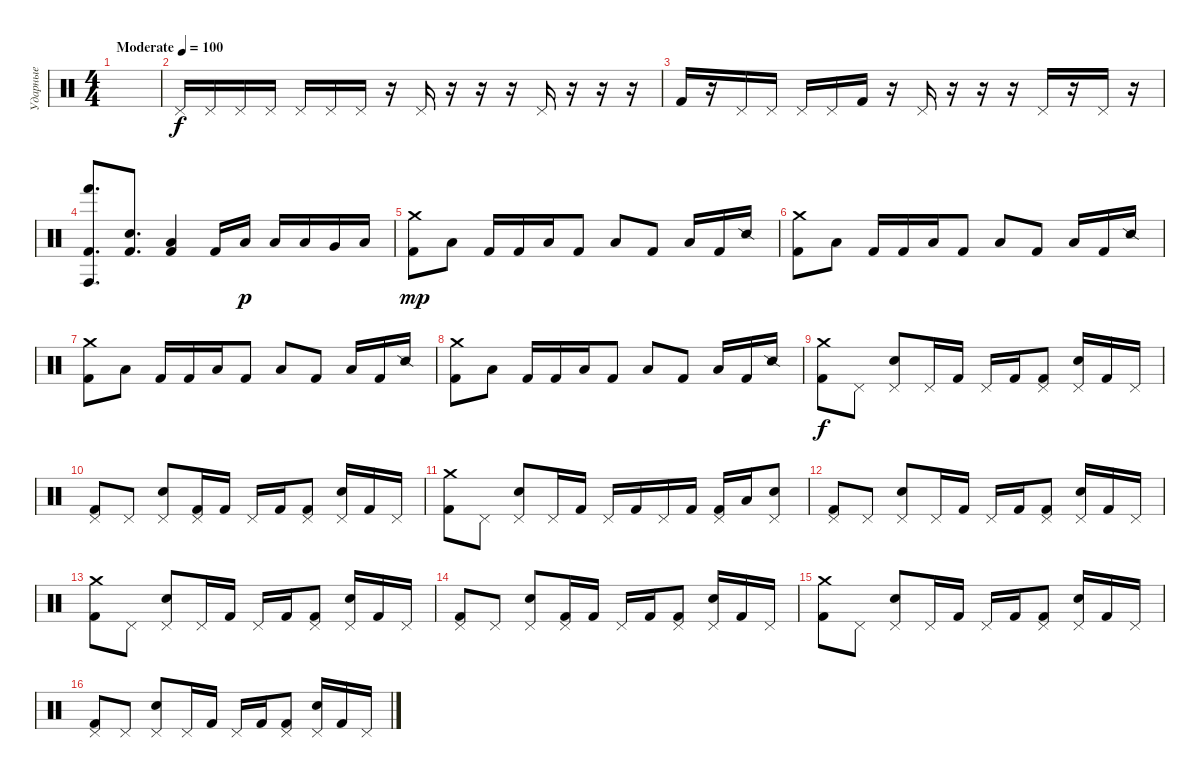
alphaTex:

\track ("Ударные" "Ударные") {instrument percussion}
\staff {score}
\articulation defaults
\ts (4 4)
\tempo (100 "Moderate")
\clef neutral
\ks c
|
"Pedal Hi-Hat (hit)".16 "Pedal Hi-Hat (hit)".16 "Pedal Hi-Hat (hit)".16 "Pedal Hi-Hat (hit)".16 "Pedal Hi-Hat (hit)".16 "Pedal Hi-Hat (hit)".16 "Pedal Hi-Hat (hit)".16 r.16 "Pedal Hi-Hat (hit)".16 r.16 r.16 r.16 "Pedal Hi-Hat (hit)".16 r.16 r.16 r.16 |
"Kick (hit) 2".16 r.16 "Pedal Hi-Hat (hit)".16 "Pedal Hi-Hat (hit)".16 "Pedal Hi-Hat (hit)".16 "Pedal Hi-Hat (hit)".16 "Kick (hit) 2".16 r.16 "Pedal Hi-Hat (hit)".16 r.16 r.16 r.16 "Pedal Hi-Hat (hit)".16 r.16 "Pedal Hi-Hat (hit)".16 r.16 |
("Hand (hit)" "Kick (hit) 2" "Conga high (hit)").8{d} ("Snare (hit) 2" "Kick (hit) 2").8{d} ("Low Floor Tom (hit)" "Kick (hit) 2").4 "Kick (hit) 2".16 "Low Floor Tom (hit)".16{dy p} "Low Floor Tom (hit)".16 "Low Floor Tom (hit)".16 "Very Low Tom (hit)".16 "Low Tom (hit)".16 |
("Crash medium (hit)" "Kick (hit) 2").8{dy mp} "Low Floor Tom (hit)".8 "Kick (hit) 2".16 "Kick (hit) 2".16 "Low Floor Tom (hit)".16 "Kick (hit) 2".8 "Low Floor Tom (hit)".8 "Kick (hit) 2".8 "Low Floor Tom (hit)".16 "Kick (hit) 2".16 "Snare (side stick) 2".16 |
("Crash medium (hit)" "Kick (hit) 2").8 "Low Floor Tom (hit)".8 "Kick (hit) 2".16 "Kick (hit) 2".16 "Low Floor Tom (hit)".16 "Kick (hit) 2".8 "Low Floor Tom (hit)".8 "Kick (hit) 2".8 "Low Floor Tom (hit)".16 "Kick (hit) 2".16 "Snare (side stick) 2".16 |
("Crash medium (hit)" "Kick (hit) 2").8 "Low Floor Tom (hit)".8 "Kick (hit) 2".16 "Kick (hit) 2".16 "Low Floor Tom (hit)".16 "Kick (hit) 2".8 "Low Floor Tom (hit)".8 "Kick (hit) 2".8 "Low Floor Tom (hit)".16 "Kick (hit) 2".16 "Snare (side stick) 2".16 |
("Crash medium (hit)" "Kick (hit) 2").8 "Low Floor Tom (hit)".8 "Kick (hit) 2".16 "Kick (hit) 2".16 "Low Floor Tom (hit)".16 "Kick (hit) 2".8 "Low Floor Tom (hit)".8 "Kick (hit) 2".8 "Low Floor Tom (hit)".16 "Kick (hit) 2".16 "Snare (side stick) 2".16 |
("Crash medium (hit)" "Kick (hit) 2").8{dy f} "Pedal Hi-Hat (hit)".8 ("Pedal Hi-Hat (hit)" "Electric Snare (hit)").8 "Pedal Hi-Hat (hit)".16 "Kick (hit) 2".16 "Pedal Hi-Hat (hit)".16 "Kick (hit) 2".16 ("Pedal Hi-Hat (hit)" "Kick (hit) 2").8 ("Pedal Hi-Hat (hit)" "Electric Snare (hit)").16 "Kick (hit) 2".16 "Pedal Hi-Hat (hit)".16 |
("Pedal Hi-Hat (hit)" "Kick (hit) 2").8 "Pedal Hi-Hat (hit)".8 ("Pedal Hi-Hat (hit)" "Electric Snare (hit)").8 ("Pedal Hi-Hat (hit)" "Kick (hit) 2").16 "Kick (hit) 2".16 "Pedal Hi-Hat (hit)".16 "Kick (hit) 2".16 ("Pedal Hi-Hat (hit)" "Kick (hit) 2").8 ("Pedal Hi-Hat (hit)" "Electric Snare (hit)").16 "Kick (hit) 2".16 "Pedal Hi-Hat (hit)".16 |
("Crash medium (hit)" "Kick (hit) 2").8 "Pedal Hi-Hat (hit)".8 ("Pedal Hi-Hat (hit)" "Electric Snare (hit)").8 "Pedal Hi-Hat (hit)".16 "Kick (hit) 2".16 "Pedal Hi-Hat (hit)".16 "Kick (hit) 2".16 "Pedal Hi-Hat (hit)".16 "Kick (hit) 2".16 ("Pedal Hi-Hat (hit)" "Kick (hit) 2").16 "Low Floor Tom (hit)".16 ("Pedal Hi-Hat (hit)" "Electric Snare (hit)").8 |
("Pedal Hi-Hat (hit)" "Kick (hit) 2").8 "Pedal Hi-Hat (hit)".8 ("Pedal Hi-Hat (hit)" "Electric Snare (hit)").8 "Pedal Hi-Hat (hit)".16 "Kick (hit) 2".16 "Pedal Hi-Hat (hit)".16 "Kick (hit) 2".16 ("Pedal Hi-Hat (hit)" "Kick (hit) 2").8 ("Pedal Hi-Hat (hit)" "Electric Snare (hit)").16 "Kick (hit) 2".16 "Pedal Hi-Hat (hit)".16 |
("Crash medium (hit)" "Kick (hit) 2").8 "Pedal Hi-Hat (hit)".8 ("Pedal Hi-Hat (hit)" "Electric Snare (hit)").8 "Pedal Hi-Hat (hit)".16 "Kick (hit) 2".16 "Pedal Hi-Hat (hit)".16 "Kick (hit) 2".16 ("Pedal Hi-Hat (hit)" "Kick (hit) 2").8 ("Pedal Hi-Hat (hit)" "Electric Snare (hit)").16 "Kick (hit) 2".16 "Pedal Hi-Hat (hit)".16 |
("Pedal Hi-Hat (hit)" "Kick (hit) 2").8 "Pedal Hi-Hat (hit)".8 ("Pedal Hi-Hat (hit)" "Electric Snare (hit)").8 ("Pedal Hi-Hat (hit)" "Kick (hit) 2").16 "Kick (hit) 2".16 "Pedal Hi-Hat (hit)".16 "Kick (hit) 2".16 ("Pedal Hi-Hat (hit)" "Kick (hit) 2").8 ("Pedal Hi-Hat (hit)" "Electric Snare (hit)").16 "Kick (hit) 2".16 "Pedal Hi-Hat (hit)".16 |
("Crash medium (hit)" "Kick (hit) 2").8 "Pedal Hi-Hat (hit)".8 ("Pedal Hi-Hat (hit)" "Electric Snare (hit)").8 "Pedal Hi-Hat (hit)".16 "Kick (hit) 2".16 "Pedal Hi-Hat (hit)".16 "Kick (hit) 2".16 ("Pedal Hi-Hat (hit)" "Kick (hit) 2").8 ("Pedal Hi-Hat (hit)" "Electric Snare (hit)").16 "Kick (hit) 2".16 "Pedal Hi-Hat (hit)".16 |
("Pedal Hi-Hat (hit)" "Kick (hit) 2").8 "Pedal Hi-Hat (hit)".8 ("Pedal Hi-Hat (hit)" "Electric Snare (hit)").8 "Pedal Hi-Hat (hit)".16 "Kick (hit) 2".16 "Pedal Hi-Hat (hit)".16 "Kick (hit) 2".16 ("Pedal Hi-Hat (hit)" "Kick (hit) 2").8 ("Pedal Hi-Hat (hit)" "Electric Snare (hit)").16 "Kick (hit) 2".16 "Pedal Hi-Hat (hit)".16
